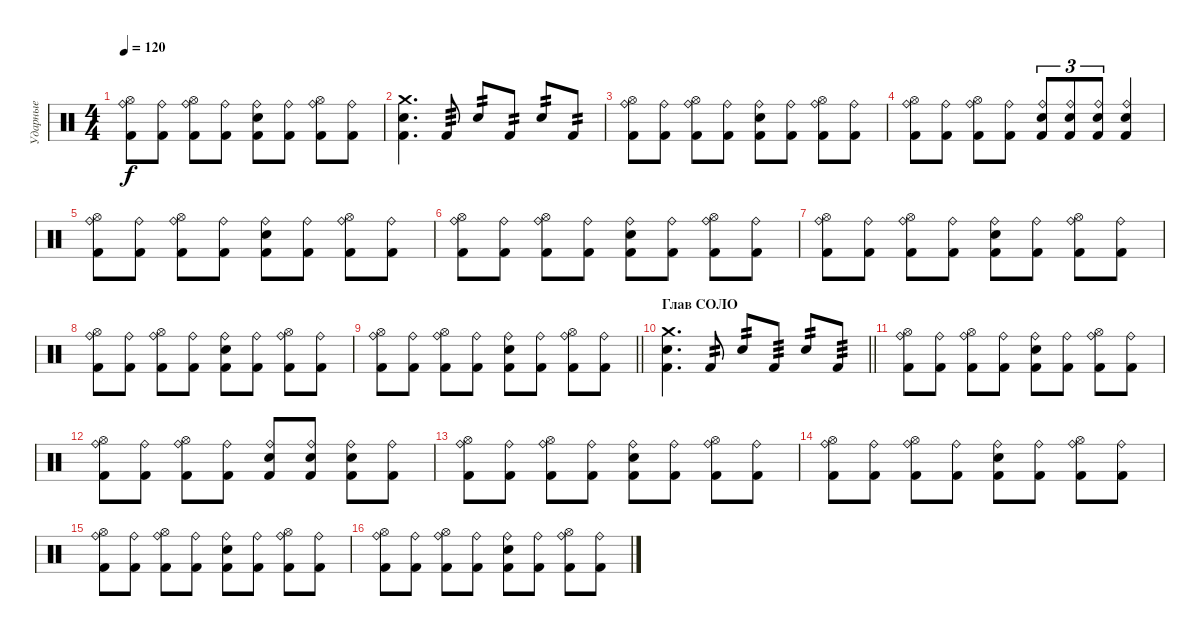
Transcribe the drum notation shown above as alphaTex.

\track ("Ударные" "Ударные") {instrument percussion}
\staff {score}
\articulation defaults
\ts (4 4)
\tempo 120
\clef neutral
\ks c
("Kick (hit) 2" "Ride (bell)" "Hi-Hat (open)").8{dy f} ("Kick (hit) 2" "Ride (bell)").8 ("Kick (hit) 2" "Ride (bell)" "Hi-Hat (open)").8 ("Kick (hit) 2" "Ride (bell)").8 ("Kick (hit) 2" "Ride (bell)" "Snare (hit) 2").8 ("Kick (hit) 2" "Ride (bell)").8 ("Kick (hit) 2" "Ride (bell)" "Hi-Hat (open)").8 ("Kick (hit) 2" "Ride (bell)").8 |
("Kick (hit) 2" "Snare (hit) 2" "Crash medium (hit)").4{d} "Kick (hit) 2".8{tp 3} "Snare (hit) 2".8{tp 2} "Kick (hit) 2".8{tp 2} "Snare (hit) 2".8{tp 2} "Kick (hit) 2".8{tp 2} |
("Kick (hit) 2" "Ride (bell)" "Hi-Hat (open)").8 ("Kick (hit) 2" "Ride (bell)").8 ("Kick (hit) 2" "Ride (bell)" "Hi-Hat (open)").8 ("Kick (hit) 2" "Ride (bell)").8 ("Kick (hit) 2" "Ride (bell)" "Snare (hit) 2").8 ("Kick (hit) 2" "Ride (bell)").8 ("Kick (hit) 2" "Ride (bell)" "Hi-Hat (open)").8 ("Kick (hit) 2" "Ride (bell)").8 |
("Kick (hit) 2" "Ride (bell)" "Hi-Hat (open)").8 ("Kick (hit) 2" "Ride (bell)").8 ("Kick (hit) 2" "Ride (bell)" "Hi-Hat (open)").8 ("Kick (hit) 2" "Ride (bell)").8 ("Kick (hit) 2" "Ride (bell)" "Snare (hit) 2").8{tu (3 2)} ("Kick (hit) 2" "Ride (bell)" "Snare (hit) 2").8{tu (3 2)} ("Kick (hit) 2" "Ride (bell)" "Snare (hit) 2").8{tu (3 2)} ("Kick (hit) 2" "Ride (bell)" "Snare (hit) 2").4 |
("Kick (hit) 2" "Ride (bell)" "Hi-Hat (open)").8 ("Kick (hit) 2" "Ride (bell)").8 ("Kick (hit) 2" "Ride (bell)" "Hi-Hat (open)").8 ("Kick (hit) 2" "Ride (bell)").8 ("Kick (hit) 2" "Ride (bell)" "Snare (hit) 2").8 ("Kick (hit) 2" "Ride (bell)").8 ("Kick (hit) 2" "Ride (bell)" "Hi-Hat (open)").8 ("Kick (hit) 2" "Ride (bell)").8 |
("Kick (hit) 2" "Ride (bell)" "Hi-Hat (open)").8 ("Kick (hit) 2" "Ride (bell)").8 ("Kick (hit) 2" "Ride (bell)" "Hi-Hat (open)").8 ("Kick (hit) 2" "Ride (bell)").8 ("Kick (hit) 2" "Ride (bell)" "Snare (hit) 2").8 ("Kick (hit) 2" "Ride (bell)").8 ("Kick (hit) 2" "Ride (bell)" "Hi-Hat (open)").8 ("Kick (hit) 2" "Ride (bell)").8 |
("Kick (hit) 2" "Ride (bell)" "Hi-Hat (open)").8 ("Kick (hit) 2" "Ride (bell)").8 ("Kick (hit) 2" "Ride (bell)" "Hi-Hat (open)").8 ("Kick (hit) 2" "Ride (bell)").8 ("Kick (hit) 2" "Ride (bell)" "Snare (hit) 2").8 ("Kick (hit) 2" "Ride (bell)").8 ("Kick (hit) 2" "Ride (bell)" "Hi-Hat (open)").8 ("Kick (hit) 2" "Ride (bell)").8 |
("Kick (hit) 2" "Ride (bell)" "Hi-Hat (open)").8 ("Kick (hit) 2" "Ride (bell)").8 ("Kick (hit) 2" "Ride (bell)" "Hi-Hat (open)").8 ("Kick (hit) 2" "Ride (bell)").8 ("Kick (hit) 2" "Ride (bell)" "Snare (hit) 2").8 ("Kick (hit) 2" "Ride (bell)").8 ("Kick (hit) 2" "Ride (bell)" "Hi-Hat (open)").8 ("Kick (hit) 2" "Ride (bell)").8 |
\barLineRight lightlight
("Kick (hit) 2" "Ride (bell)" "Hi-Hat (open)").8 ("Kick (hit) 2" "Ride (bell)").8 ("Kick (hit) 2" "Ride (bell)" "Hi-Hat (open)").8 ("Kick (hit) 2" "Ride (bell)").8 ("Kick (hit) 2" "Ride (bell)" "Snare (hit) 2").8 ("Kick (hit) 2" "Ride (bell)").8 ("Kick (hit) 2" "Ride (bell)" "Hi-Hat (open)").8 ("Kick (hit) 2" "Ride (bell)").8 |
\section ("" "Глав СОЛО")
\barLineRight lightlight
("Kick (hit) 2" "Snare (hit) 2" "Crash medium (hit)").4{d volume 14} "Kick (hit) 2".8{tp 2} "Snare (hit) 2".8{tp 2} "Kick (hit) 2".8{tp 3} "Snare (hit) 2".8{tp 2} "Kick (hit) 2".8{tp 3} |
("Kick (hit) 2" "Ride (bell)" "Hi-Hat (open)").8 ("Kick (hit) 2" "Ride (bell)").8 ("Kick (hit) 2" "Ride (bell)" "Hi-Hat (open)").8 ("Kick (hit) 2" "Ride (bell)").8 ("Kick (hit) 2" "Ride (bell)" "Snare (hit) 2").8 ("Kick (hit) 2" "Ride (bell)").8 ("Kick (hit) 2" "Ride (bell)" "Hi-Hat (open)").8 ("Kick (hit) 2" "Ride (bell)").8 |
("Kick (hit) 2" "Ride (bell)" "Hi-Hat (open)").8 ("Kick (hit) 2" "Ride (bell)").8 ("Kick (hit) 2" "Ride (bell)" "Hi-Hat (open)").8 ("Kick (hit) 2" "Ride (bell)").8 ("Kick (hit) 2" "Ride (bell)" "Snare (hit) 2").8 ("Kick (hit) 2" "Ride (bell)" "Snare (hit) 2").8 ("Kick (hit) 2" "Ride (bell)" "Snare (hit) 2").8 ("Kick (hit) 2" "Ride (bell)").8 |
("Kick (hit) 2" "Ride (bell)" "Hi-Hat (open)").8 ("Kick (hit) 2" "Ride (bell)").8 ("Kick (hit) 2" "Ride (bell)" "Hi-Hat (open)").8 ("Kick (hit) 2" "Ride (bell)").8 ("Kick (hit) 2" "Ride (bell)" "Snare (hit) 2").8 ("Kick (hit) 2" "Ride (bell)").8 ("Kick (hit) 2" "Ride (bell)" "Hi-Hat (open)").8 ("Kick (hit) 2" "Ride (bell)").8 |
("Kick (hit) 2" "Ride (bell)" "Hi-Hat (open)").8 ("Kick (hit) 2" "Ride (bell)").8 ("Kick (hit) 2" "Ride (bell)" "Hi-Hat (open)").8 ("Kick (hit) 2" "Ride (bell)").8 ("Kick (hit) 2" "Ride (bell)" "Snare (hit) 2").8 ("Kick (hit) 2" "Ride (bell)").8 ("Kick (hit) 2" "Ride (bell)" "Hi-Hat (open)").8 ("Kick (hit) 2" "Ride (bell)").8 |
("Kick (hit) 2" "Ride (bell)" "Hi-Hat (open)").8 ("Kick (hit) 2" "Ride (bell)").8 ("Kick (hit) 2" "Ride (bell)" "Hi-Hat (open)").8 ("Kick (hit) 2" "Ride (bell)").8 ("Kick (hit) 2" "Ride (bell)" "Snare (hit) 2").8 ("Kick (hit) 2" "Ride (bell)").8 ("Kick (hit) 2" "Ride (bell)" "Hi-Hat (open)").8 ("Kick (hit) 2" "Ride (bell)").8 |
("Kick (hit) 2" "Ride (bell)" "Hi-Hat (open)").8 ("Kick (hit) 2" "Ride (bell)").8 ("Kick (hit) 2" "Ride (bell)" "Hi-Hat (open)").8 ("Kick (hit) 2" "Ride (bell)").8 ("Kick (hit) 2" "Ride (bell)" "Snare (hit) 2").8 ("Kick (hit) 2" "Ride (bell)").8 ("Kick (hit) 2" "Ride (bell)" "Hi-Hat (open)").8 ("Kick (hit) 2" "Ride (bell)").8
